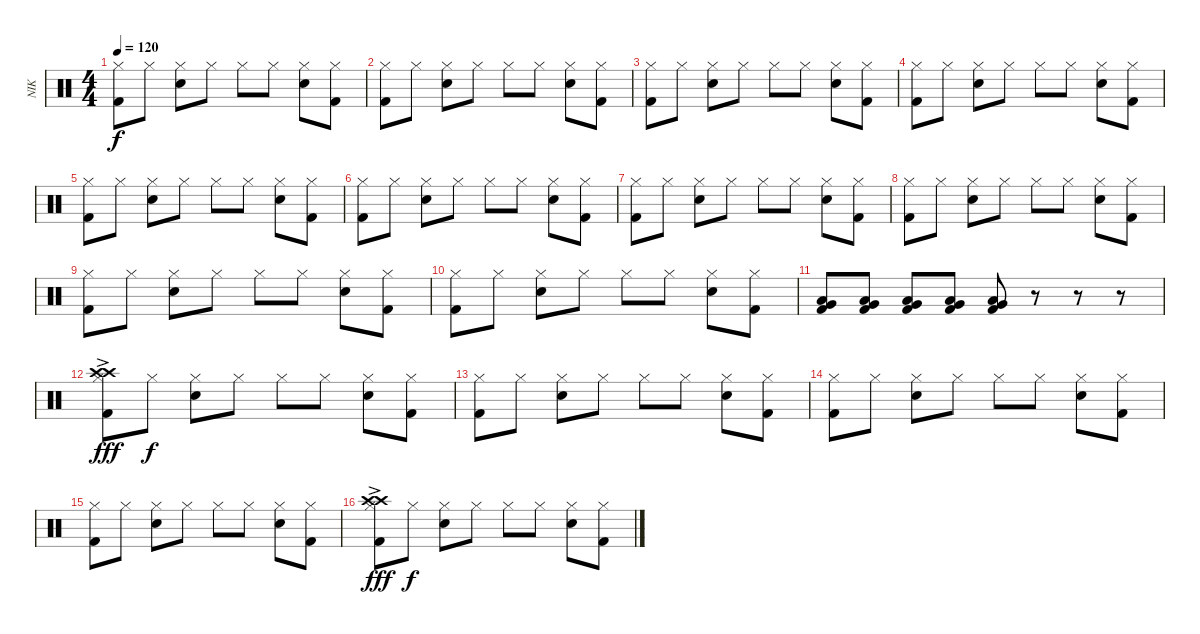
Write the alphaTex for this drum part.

\track ("NIK" "NIK") {instrument percussion}
\staff {score}
\articulation defaults
\ts (4 4)
\tempo 120
\clef neutral
\ks c
("Hi-Hat (closed)" "Kick (hit) 2").8{dy f} "Hi-Hat (closed)".8 ("Snare (hit) 2" "Hi-Hat (closed)").8 "Hi-Hat (closed)".8 "Hi-Hat (closed)".8 "Hi-Hat (closed)".8 ("Snare (hit) 2" "Hi-Hat (closed)").8 ("Hi-Hat (closed)" "Kick (hit) 2").8 |
("Hi-Hat (closed)" "Kick (hit) 2").8 "Hi-Hat (closed)".8 ("Snare (hit) 2" "Hi-Hat (closed)").8 "Hi-Hat (closed)".8 "Hi-Hat (closed)".8 "Hi-Hat (closed)".8 ("Snare (hit) 2" "Hi-Hat (closed)").8 ("Hi-Hat (closed)" "Kick (hit) 2").8 |
("Hi-Hat (closed)" "Kick (hit) 2").8 "Hi-Hat (closed)".8 ("Snare (hit) 2" "Hi-Hat (closed)").8 "Hi-Hat (closed)".8 "Hi-Hat (closed)".8 "Hi-Hat (closed)".8 ("Snare (hit) 2" "Hi-Hat (closed)").8 ("Hi-Hat (closed)" "Kick (hit) 2").8 |
("Hi-Hat (closed)" "Kick (hit) 2").8 "Hi-Hat (closed)".8 ("Snare (hit) 2" "Hi-Hat (closed)").8 "Hi-Hat (closed)".8 "Hi-Hat (closed)".8 "Hi-Hat (closed)".8 ("Snare (hit) 2" "Hi-Hat (closed)").8 ("Hi-Hat (closed)" "Kick (hit) 2").8 |
("Hi-Hat (closed)" "Kick (hit) 2").8 "Hi-Hat (closed)".8 ("Snare (hit) 2" "Hi-Hat (closed)").8 "Hi-Hat (closed)".8 "Hi-Hat (closed)".8 "Hi-Hat (closed)".8 ("Snare (hit) 2" "Hi-Hat (closed)").8 ("Hi-Hat (closed)" "Kick (hit) 2").8 |
("Hi-Hat (closed)" "Kick (hit) 2").8 "Hi-Hat (closed)".8 ("Snare (hit) 2" "Hi-Hat (closed)").8 "Hi-Hat (closed)".8 "Hi-Hat (closed)".8 "Hi-Hat (closed)".8 ("Snare (hit) 2" "Hi-Hat (closed)").8 ("Hi-Hat (closed)" "Kick (hit) 2").8 |
("Hi-Hat (closed)" "Kick (hit) 2").8 "Hi-Hat (closed)".8 ("Snare (hit) 2" "Hi-Hat (closed)").8 "Hi-Hat (closed)".8 "Hi-Hat (closed)".8 "Hi-Hat (closed)".8 ("Snare (hit) 2" "Hi-Hat (closed)").8 ("Hi-Hat (closed)" "Kick (hit) 2").8 |
("Hi-Hat (closed)" "Kick (hit) 2").8 "Hi-Hat (closed)".8 ("Snare (hit) 2" "Hi-Hat (closed)").8 "Hi-Hat (closed)".8 "Hi-Hat (closed)".8 "Hi-Hat (closed)".8 ("Snare (hit) 2" "Hi-Hat (closed)").8 ("Hi-Hat (closed)" "Kick (hit) 2").8 |
("Hi-Hat (closed)" "Kick (hit) 2").8 "Hi-Hat (closed)".8 ("Snare (hit) 2" "Hi-Hat (closed)").8 "Hi-Hat (closed)".8 "Hi-Hat (closed)".8 "Hi-Hat (closed)".8 ("Snare (hit) 2" "Hi-Hat (closed)").8 ("Hi-Hat (closed)" "Kick (hit) 2").8 |
("Hi-Hat (closed)" "Kick (hit) 2").8 "Hi-Hat (closed)".8 ("Snare (hit) 2" "Hi-Hat (closed)").8 "Hi-Hat (closed)".8 "Hi-Hat (closed)".8 "Hi-Hat (closed)".8 ("Snare (hit) 2" "Hi-Hat (closed)").8 ("Hi-Hat (closed)" "Kick (hit) 2").8 |
("Very Low Tom (hit)" "Low Floor Tom (hit)" "Kick (hit) 2").8 ("Very Low Tom (hit)" "Low Floor Tom (hit)" "Kick (hit) 2").8 ("Very Low Tom (hit)" "Low Floor Tom (hit)" "Kick (hit) 2").8 ("Very Low Tom (hit)" "Low Floor Tom (hit)" "Kick (hit) 2").8 ("Very Low Tom (hit)" "Low Floor Tom (hit)" "Kick (hit) 2").8 r.8 r.8 r.8 |
("Crash high (hit)"{ac} "Crash high (hit)"{ac} "Hi-Hat (closed)" "Kick (hit) 2").8{dy fff} "Hi-Hat (closed)".8{dy f} ("Snare (hit) 2" "Hi-Hat (closed)").8 "Hi-Hat (closed)".8 "Hi-Hat (closed)".8 "Hi-Hat (closed)".8 ("Snare (hit) 2" "Hi-Hat (closed)").8 ("Hi-Hat (closed)" "Kick (hit) 2").8 |
("Hi-Hat (closed)" "Kick (hit) 2").8 "Hi-Hat (closed)".8 ("Snare (hit) 2" "Hi-Hat (closed)").8 "Hi-Hat (closed)".8 "Hi-Hat (closed)".8 "Hi-Hat (closed)".8 ("Snare (hit) 2" "Hi-Hat (closed)").8 ("Hi-Hat (closed)" "Kick (hit) 2").8 |
("Hi-Hat (closed)" "Kick (hit) 2").8 "Hi-Hat (closed)".8 ("Snare (hit) 2" "Hi-Hat (closed)").8 "Hi-Hat (closed)".8 "Hi-Hat (closed)".8 "Hi-Hat (closed)".8 ("Snare (hit) 2" "Hi-Hat (closed)").8 ("Hi-Hat (closed)" "Kick (hit) 2").8 |
("Hi-Hat (closed)" "Kick (hit) 2").8 "Hi-Hat (closed)".8 ("Snare (hit) 2" "Hi-Hat (closed)").8 "Hi-Hat (closed)".8 "Hi-Hat (closed)".8 "Hi-Hat (closed)".8 ("Snare (hit) 2" "Hi-Hat (closed)").8 ("Hi-Hat (closed)" "Kick (hit) 2").8 |
("Crash high (hit)"{ac} "Crash high (hit)"{ac} "Hi-Hat (closed)" "Kick (hit) 2").8{dy fff} "Hi-Hat (closed)".8{dy f} ("Snare (hit) 2" "Hi-Hat (closed)").8 "Hi-Hat (closed)".8 "Hi-Hat (closed)".8 "Hi-Hat (closed)".8 ("Snare (hit) 2" "Hi-Hat (closed)").8 ("Hi-Hat (closed)" "Kick (hit) 2").8
